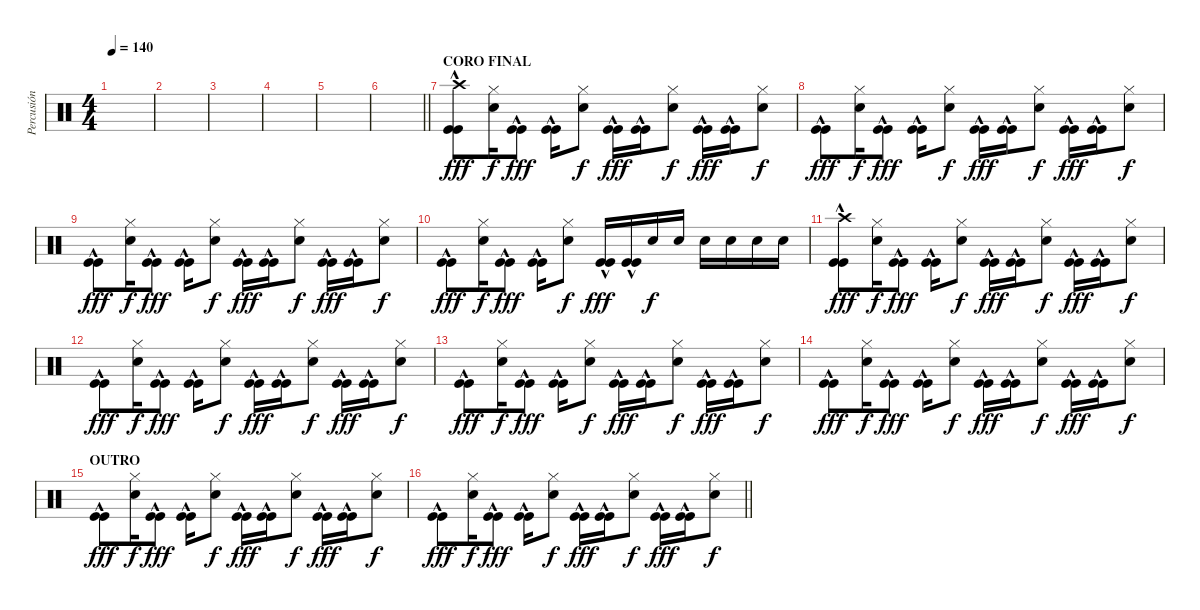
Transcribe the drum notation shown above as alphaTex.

\track ("Percusión" "Percusión") {instrument percussion}
\staff {score}
\articulation defaults
\ts (4 4)
\tempo 140
\clef neutral
\ks c
|
|
|
|
|
\barLineRight lightlight
|
\section ("" "CORO FINAL")
("Crash high (hit)" "Kick (hit)"{hac} "Kick (hit)").8{dy fff} ("Hi-Hat (closed)" "Snare (hit) 2").16{dy f} ("Kick (hit)"{hac} "Kick (hit)").8{dy fff} ("Kick (hit)" "Kick (hit)"{hac}).16 ("Hi-Hat (closed)" "Snare (hit) 2").8{dy f} ("Kick (hit)"{hac} "Kick (hit)").16{dy fff} ("Kick (hit)"{hac} "Kick (hit)").16 ("Hi-Hat (closed)" "Snare (hit) 2").8{dy f} ("Kick (hit)"{hac} "Kick (hit)").16{dy fff} ("Kick (hit)"{hac} "Kick (hit)").16 ("Hi-Hat (closed)" "Snare (hit) 2").8{dy f} |
("Kick (hit)"{hac} "Kick (hit)").8{dy fff} ("Hi-Hat (closed)" "Snare (hit) 2").16{dy f} ("Kick (hit)"{hac} "Kick (hit)").8{dy fff} ("Kick (hit)" "Kick (hit)"{hac}).16 ("Hi-Hat (closed)" "Snare (hit) 2").8{dy f} ("Kick (hit)"{hac} "Kick (hit)").16{dy fff} ("Kick (hit)"{hac} "Kick (hit)").16 ("Hi-Hat (closed)" "Snare (hit) 2").8{dy f} ("Kick (hit)"{hac} "Kick (hit)").16{dy fff} ("Kick (hit)"{hac} "Kick (hit)").16 ("Hi-Hat (closed)" "Snare (hit) 2").8{dy f} |
("Kick (hit)"{hac} "Kick (hit)").8{dy fff} ("Hi-Hat (closed)" "Snare (hit) 2").16{dy f} ("Kick (hit)"{hac} "Kick (hit)").8{dy fff} ("Kick (hit)" "Kick (hit)"{hac}).16 ("Hi-Hat (closed)" "Snare (hit) 2").8{dy f} ("Kick (hit)"{hac} "Kick (hit)").16{dy fff} ("Kick (hit)"{hac} "Kick (hit)").16 ("Hi-Hat (closed)" "Snare (hit) 2").8{dy f} ("Kick (hit)"{hac} "Kick (hit)").16{dy fff} ("Kick (hit)"{hac} "Kick (hit)").16 ("Hi-Hat (closed)" "Snare (hit) 2").8{dy f} |
("Kick (hit)"{hac} "Kick (hit)").8{dy fff} ("Hi-Hat (closed)" "Snare (hit) 2").16{dy f} ("Kick (hit)"{hac} "Kick (hit)").8{dy fff} ("Kick (hit)" "Kick (hit)"{hac}).16 ("Hi-Hat (closed)" "Snare (hit) 2").8{dy f} ("Kick (hit)"{hac} "Kick (hit)").16{dy fff} ("Kick (hit)"{hac} "Kick (hit)").16 "Snare (hit) 2".16{dy f} "Snare (hit) 2".16 "Snare (hit) 2".16 "Snare (hit) 2".16 "Snare (hit) 2".16 "Snare (hit) 2".16 |
("Crash high (hit)" "Kick (hit)"{hac} "Kick (hit)").8{dy fff} ("Hi-Hat (closed)" "Snare (hit) 2").16{dy f} ("Kick (hit)"{hac} "Kick (hit)").8{dy fff} ("Kick (hit)" "Kick (hit)"{hac}).16 ("Hi-Hat (closed)" "Snare (hit) 2").8{dy f} ("Kick (hit)"{hac} "Kick (hit)").16{dy fff} ("Kick (hit)"{hac} "Kick (hit)").16 ("Hi-Hat (closed)" "Snare (hit) 2").8{dy f} ("Kick (hit)"{hac} "Kick (hit)").16{dy fff} ("Kick (hit)"{hac} "Kick (hit)").16 ("Hi-Hat (closed)" "Snare (hit) 2").8{dy f} |
("Kick (hit)"{hac} "Kick (hit)").8{dy fff} ("Hi-Hat (closed)" "Snare (hit) 2").16{dy f} ("Kick (hit)"{hac} "Kick (hit)").8{dy fff} ("Kick (hit)" "Kick (hit)"{hac}).16 ("Hi-Hat (closed)" "Snare (hit) 2").8{dy f} ("Kick (hit)"{hac} "Kick (hit)").16{dy fff} ("Kick (hit)"{hac} "Kick (hit)").16 ("Hi-Hat (closed)" "Snare (hit) 2").8{dy f} ("Kick (hit)"{hac} "Kick (hit)").16{dy fff} ("Kick (hit)"{hac} "Kick (hit)").16 ("Hi-Hat (closed)" "Snare (hit) 2").8{dy f} |
("Kick (hit)"{hac} "Kick (hit)").8{dy fff} ("Hi-Hat (closed)" "Snare (hit) 2").16{dy f} ("Kick (hit)"{hac} "Kick (hit)").8{dy fff} ("Kick (hit)" "Kick (hit)"{hac}).16 ("Hi-Hat (closed)" "Snare (hit) 2").8{dy f} ("Kick (hit)"{hac} "Kick (hit)").16{dy fff} ("Kick (hit)"{hac} "Kick (hit)").16 ("Hi-Hat (closed)" "Snare (hit) 2").8{dy f} ("Kick (hit)"{hac} "Kick (hit)").16{dy fff} ("Kick (hit)"{hac} "Kick (hit)").16 ("Hi-Hat (closed)" "Snare (hit) 2").8{dy f} |
("Kick (hit)"{hac} "Kick (hit)").8{dy fff} ("Hi-Hat (closed)" "Snare (hit) 2").16{dy f} ("Kick (hit)"{hac} "Kick (hit)").8{dy fff} ("Kick (hit)" "Kick (hit)"{hac}).16 ("Hi-Hat (closed)" "Snare (hit) 2").8{dy f} ("Kick (hit)"{hac} "Kick (hit)").16{dy fff} ("Kick (hit)"{hac} "Kick (hit)").16 ("Hi-Hat (closed)" "Snare (hit) 2").8{dy f} ("Kick (hit)"{hac} "Kick (hit)").16{dy fff} ("Kick (hit)"{hac} "Kick (hit)").16 ("Hi-Hat (closed)" "Snare (hit) 2").8{dy f} |
\section ("" "OUTRO")
("Kick (hit)"{hac} "Kick (hit)").8{dy fff} ("Hi-Hat (closed)" "Snare (hit) 2").16{dy f} ("Kick (hit)"{hac} "Kick (hit)").8{dy fff} ("Kick (hit)" "Kick (hit)"{hac}).16 ("Hi-Hat (closed)" "Snare (hit) 2").8{dy f} ("Kick (hit)"{hac} "Kick (hit)").16{dy fff} ("Kick (hit)"{hac} "Kick (hit)").16 ("Hi-Hat (closed)" "Snare (hit) 2").8{dy f} ("Kick (hit)"{hac} "Kick (hit)").16{dy fff} ("Kick (hit)"{hac} "Kick (hit)").16 ("Hi-Hat (closed)" "Snare (hit) 2").8{dy f} |
\barLineRight lightlight
("Kick (hit)"{hac} "Kick (hit)").8{dy fff} ("Hi-Hat (closed)" "Snare (hit) 2").16{dy f} ("Kick (hit)"{hac} "Kick (hit)").8{dy fff} ("Kick (hit)" "Kick (hit)"{hac}).16 ("Hi-Hat (closed)" "Snare (hit) 2").8{dy f} ("Kick (hit)"{hac} "Kick (hit)").16{dy fff} ("Kick (hit)"{hac} "Kick (hit)").16 ("Hi-Hat (closed)" "Snare (hit) 2").8{dy f} ("Kick (hit)"{hac} "Kick (hit)").16{dy fff} ("Kick (hit)"{hac} "Kick (hit)").16 ("Hi-Hat (closed)" "Snare (hit) 2").8{dy f}
